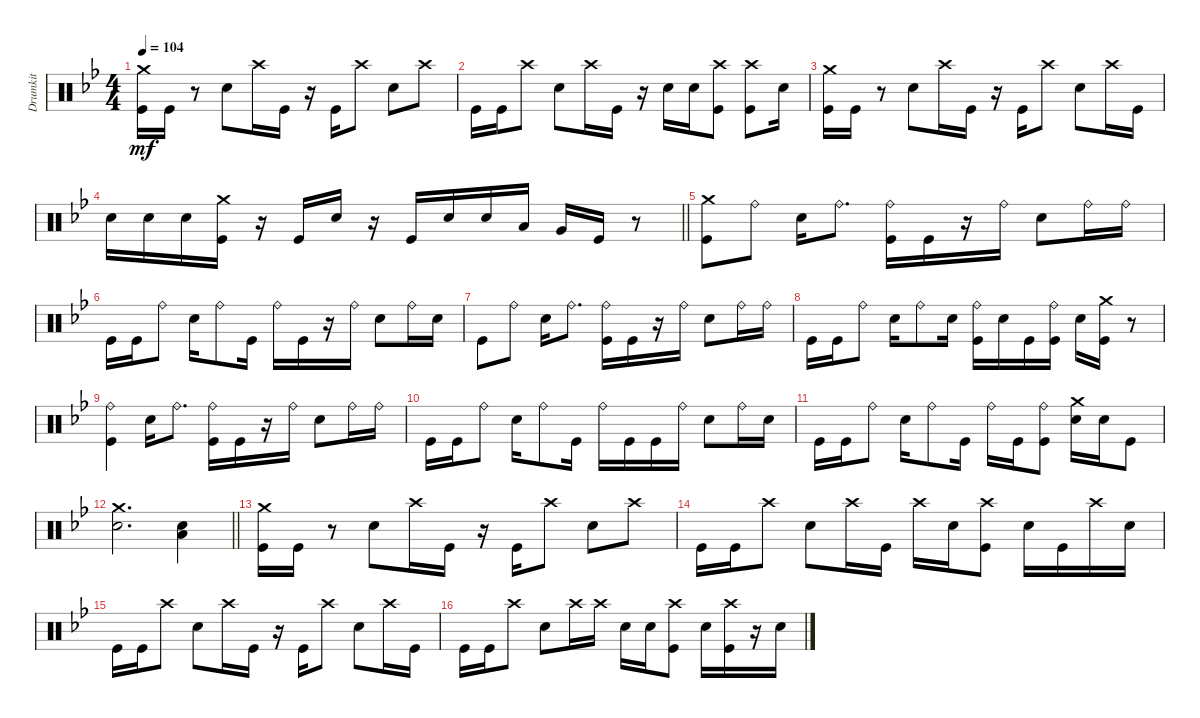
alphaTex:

\track ("Drumkit" "Drumkit") {instrument percussion}
\staff {score}
\articulation defaults
\ts (4 4)
\tempo 104
\clef neutral
\ks bb
("Kick (hit)" "Crash medium (hit)").16{dy mf} "Kick (hit)".16 r.8 "Snare (hit) 2".8 "Crash high (hit)".16 "Kick (hit)".16 r.16 "Kick (hit)".16 "Crash high (hit)".8 "Snare (hit) 2".8 "Crash high (hit)".8 |
"Kick (hit)".16 "Kick (hit)".16 "Crash high (hit)".8 "Snare (hit) 2".8 "Crash high (hit)".16 "Kick (hit)".16 r.16 "Snare (hit) 2".16 "Snare (hit) 2".16 ("Kick (hit)" "Crash high (hit)").8 ("Crash high (hit)" "Kick (hit)").8 "Snare (hit) 2".16 |
("Kick (hit)" "Crash medium (hit)").16 "Kick (hit)".16 r.8 "Snare (hit) 2".8 "Crash high (hit)".16 "Kick (hit)".16 r.16 "Kick (hit)".16 "Crash high (hit)".8 "Snare (hit) 2".8 "Crash high (hit)".16 "Kick (hit)".16 |
\barLineRight lightlight "Snare (hit) 2".16 "Snare (hit) 2".16 "Snare (hit) 2".16
("Kick (hit)" "Crash medium (hit)").16 r.16 "Kick (hit)".16 "Snare (hit) 2".16 r.16 "Kick (hit)".16 "Snare (hit) 2".16 "Snare (hit) 2".16 "Low Tom (hit)".16 "Very Low Tom (hit)".16 "Kick (hit)".16 r.8 |
("Kick (hit)" "Crash medium (hit)").8 "Ride (bell)".8 "Snare (hit) 2".16 "Ride (bell)".8{d} ("Ride (bell)" "Kick (hit)").16 "Kick (hit)".16 r.16 "Ride (bell)".16 "Snare (hit) 2".8 "Ride (bell)".16 "Ride (bell)".16 |
"Kick (hit)".16 "Kick (hit)".16 "Ride (bell)".8 "Snare (hit) 2".16 "Ride (bell)".8 "Kick (hit)".16 "Ride (bell)".16 "Kick (hit)".16 r.16 "Ride (bell)".16 "Snare (hit) 2".8 "Ride (bell)".16 "Snare (hit) 2".16 |
"Kick (hit)".8 "Ride (bell)".8 "Snare (hit) 2".16 "Ride (bell)".8{d} ("Ride (bell)" "Kick (hit)").16 "Kick (hit)".16 r.16 "Ride (bell)".16 "Snare (hit) 2".8 "Ride (bell)".16 "Ride (bell)".16 |
"Kick (hit)".16 "Kick (hit)".16 "Ride (bell)".8 "Snare (hit) 2".16 "Ride (bell)".8 "Snare (hit) 2".16 ("Kick (hit)" "Ride (bell)").16 "Snare (hit) 2".16 "Kick (hit)".16 ("Kick (hit)" "Ride (bell)").16 "Snare (hit) 2".16 ("Kick (hit)" "Crash medium (hit)").16 r.8 |
("Kick (hit)" "Ride (bell)").4 "Snare (hit) 2".16 "Ride (bell)".8{d} ("Ride (bell)" "Kick (hit)").16 "Kick (hit)".16 r.16 "Ride (bell)".16 "Snare (hit) 2".8 "Ride (bell)".16 "Ride (bell)".16 |
"Kick (hit)".16 "Kick (hit)".16 "Ride (bell)".8 "Snare (hit) 2".16 "Ride (bell)".8 "Kick (hit)".16 "Ride (bell)".16 "Kick (hit)".16 "Kick (hit)".16 "Ride (bell)".16 "Snare (hit) 2".8 "Ride (bell)".16 "Snare (hit) 2".16 |
"Kick (hit)".16 "Kick (hit)".16 "Ride (bell)".8 "Snare (hit) 2".16 "Ride (bell)".8 "Kick (hit)".16 "Ride (bell)".16 "Kick (hit)".16 ("Kick (hit)" "Ride (bell)").8 ("Snare (hit) 2" "Crash medium (hit)").16 "Snare (hit) 2".16 "Kick (hit)".8 |
\barLineRight lightlight
("Snare (hit) 2" "Crash medium (hit)").2{d} ("Snare (hit) 2" "Low Floor Tom (hit)").4 |
("Kick (hit)" "Crash medium (hit)").16 "Kick (hit)".16 r.8 "Snare (hit) 2".8 "Crash high (hit)".16 "Kick (hit)".16 r.16 "Kick (hit)".16 "Crash high (hit)".8 "Snare (hit) 2".8 "Crash high (hit)".8 |
"Kick (hit)".16 "Kick (hit)".16 "Crash high (hit)".8 "Snare (hit) 2".8 "Crash high (hit)".16 "Kick (hit)".16 "Crash high (hit)".16 "Snare (hit) 2".16 ("Crash high (hit)" "Kick (hit)").8 "Snare (hit) 2".16 "Kick (hit)".16 "Crash high (hit)".16 "Snare (hit) 2".16 |
"Kick (hit)".16 "Kick (hit)".16 "Crash high (hit)".8 "Snare (hit) 2".8 "Crash high (hit)".16 "Kick (hit)".16 r.16 "Kick (hit)".16 "Crash high (hit)".8 "Snare (hit) 2".8 "Crash high (hit)".16 "Kick (hit)".16 |
"Kick (hit)".16 "Kick (hit)".16 "Crash high (hit)".8 "Snare (hit) 2".8 "Crash high (hit)".16 "Crash high (hit)".16 "Snare (hit) 2".16 "Snare (hit) 2".16 ("Crash high (hit)" "Kick (hit)").8 "Snare (hit) 2".16 ("Kick (hit)" "Crash high (hit)").16 r.16 "Snare (hit) 2".16
